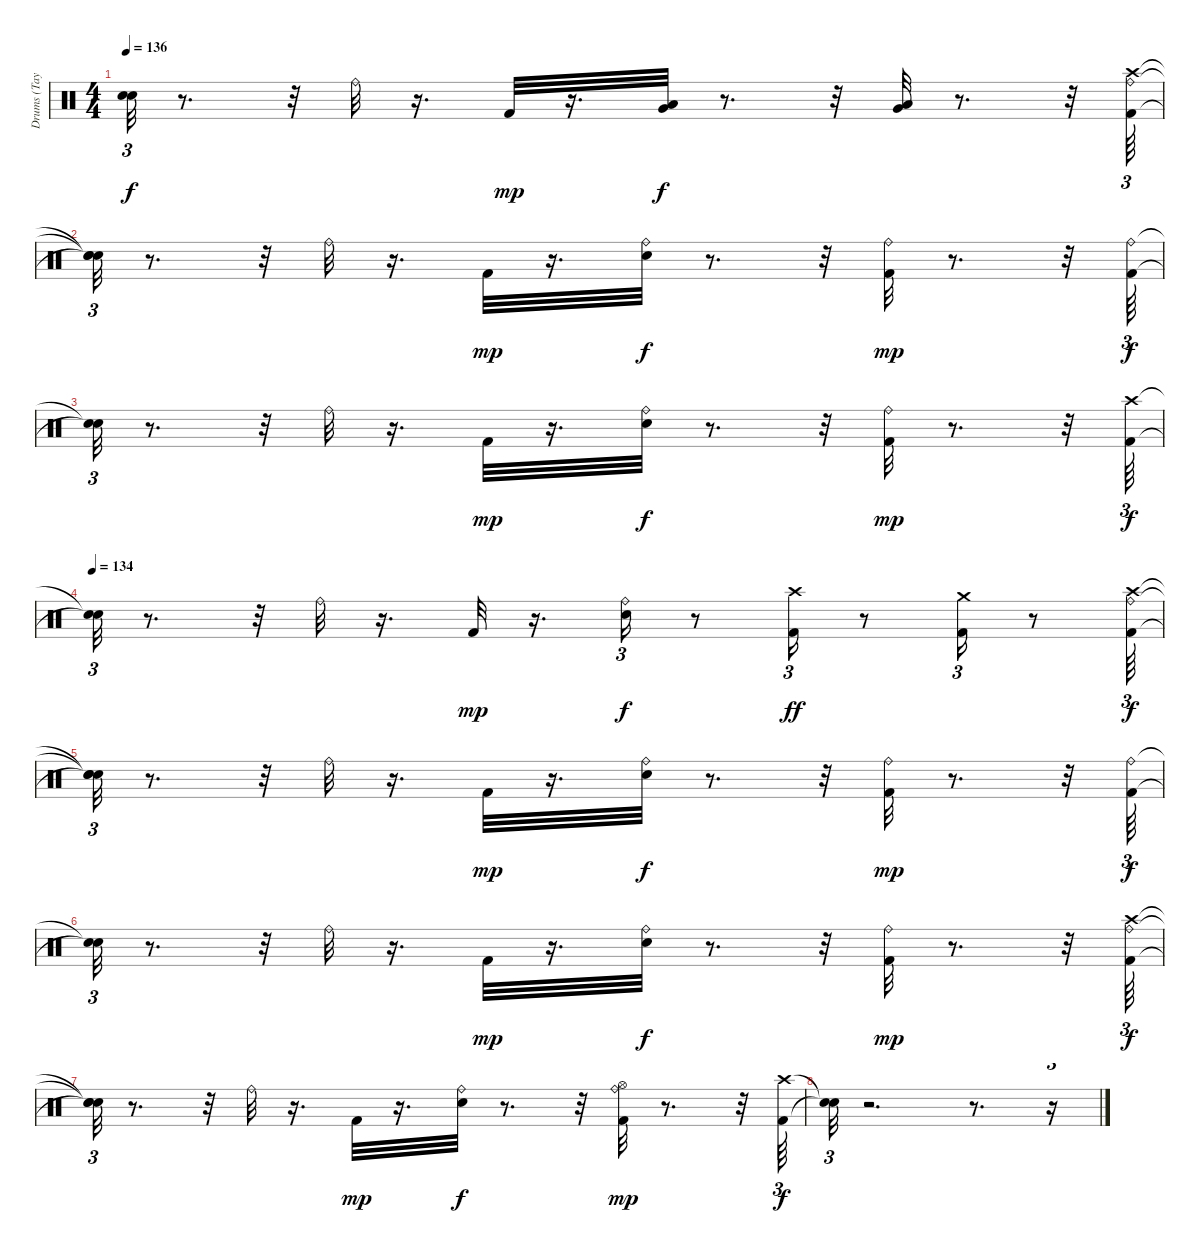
\track ("Drums (Taylor)" "Drums (Tay") {instrument percussion}
\staff {score}
\articulation defaults
\ts (4 4)
\tempo 136
\clef neutral
\ks c
("Snare (hit)"{t} "Snare (hit)"{t}).32{tu (3 2) dy f} r.8{d} r.32 "Ride (bell)".32 r.16{d} "Kick (hit) 2".32{dy mp} r.16{d} ("Very Low Tom (hit)" "Low Tom (hit)").32{dy f} r.8{d} r.32 ("Low Floor Tom (hit)" "Very Low Tom (hit)").32 r.8{d} r.32 ("Crash high (hit)" "Ride (bell)" "Kick (hit) 2").64{tu (3 2)} |
("Snare (hit)"{t} "Snare (hit)"{t} "Snare (hit)"{t}).32{tu (3 2)} r.8{d} r.32 "Ride (bell)".32 r.16{d} "Kick (hit) 2".32{dy mp} r.16{d} ("Snare (hit) 2" "Ride (bell)").32{dy f} r.8{d} r.32 ("Kick (hit) 2" "Ride (bell)").32{dy mp} r.8{d} r.32 ("Ride (bell)" "Kick (hit) 2").64{tu (3 2) dy f} |
("Snare (hit)"{t} "Snare (hit)"{t}).32{tu (3 2)} r.8{d} r.32 "Ride (bell)".32 r.16{d} "Kick (hit) 2".32{dy mp} r.16{d} ("Snare (hit) 2" "Ride (bell)").32{dy f} r.8{d} r.32 ("Kick (hit) 2" "Ride (bell)").32{dy mp} r.8{d} r.32 ("Kick (hit) 2" "Crash high (hit)").64{tu (3 2) dy f} |
\tempo 134
("Snare (hit)"{t} "Snare (hit)"{t}).32{tu (3 2)} r.8{d} r.32 "Ride (bell)".32 r.16{d} "Kick (hit) 2".32{dy mp} r.16{d} ("Ride (bell)" "Snare (hit) 2").16{tu (3 2) dy f} r.8 ("Crash high (hit)" "Kick (hit) 2").16{tu (3 2) dy ff} r.8 ("Kick (hit) 2" "Crash medium (hit)").16{tu (3 2)} r.8 ("Crash high (hit)" "Ride (bell)" "Kick (hit) 2").64{tu (3 2) dy f} |
("Snare (hit)"{t} "Snare (hit)"{t} "Snare (hit)"{t}).32{tu (3 2)} r.8{d} r.32 "Ride (bell)".32 r.16{d} "Kick (hit) 2".32{dy mp} r.16{d} ("Snare (hit) 2" "Ride (bell)").32{dy f} r.8{d} r.32 ("Kick (hit) 2" "Ride (bell)").32{dy mp} r.8{d} r.32 ("Ride (bell)" "Kick (hit) 2").64{tu (3 2) dy f} |
("Snare (hit)"{t} "Snare (hit)"{t}).32{tu (3 2)} r.8{d} r.32 "Ride (bell)".32 r.16{d} "Kick (hit) 2".32{dy mp} r.16{d} ("Snare (hit) 2" "Ride (bell)").32{dy f} r.8{d} r.32 ("Kick (hit) 2" "Ride (bell)").32{dy mp} r.8{d} r.32 ("Crash high (hit)" "Ride (bell)" "Kick (hit) 2").64{tu (3 2) dy f} |
("Snare (hit)"{t} "Snare (hit)"{t} "Snare (hit)"{t}).32{tu (3 2)} r.8{d} r.32 "Ride (bell)".32 r.16{d} "Kick (hit) 2".32{dy mp} r.16{d} ("Snare (hit) 2" "Ride (bell)").32{dy f} r.8{d} r.32 ("Kick (hit) 2" "Ride (bell)" "Hi-Hat (open)").32{dy mp} r.8{d} r.32 ("Kick (hit) 2" "Crash high (hit)").64{tu (3 2) dy f} |
("Snare (hit)"{t} "Snare (hit)"{t}).32{tu (3 2)} r.2{d} r.8{d} r.16{tu (3 2)}
